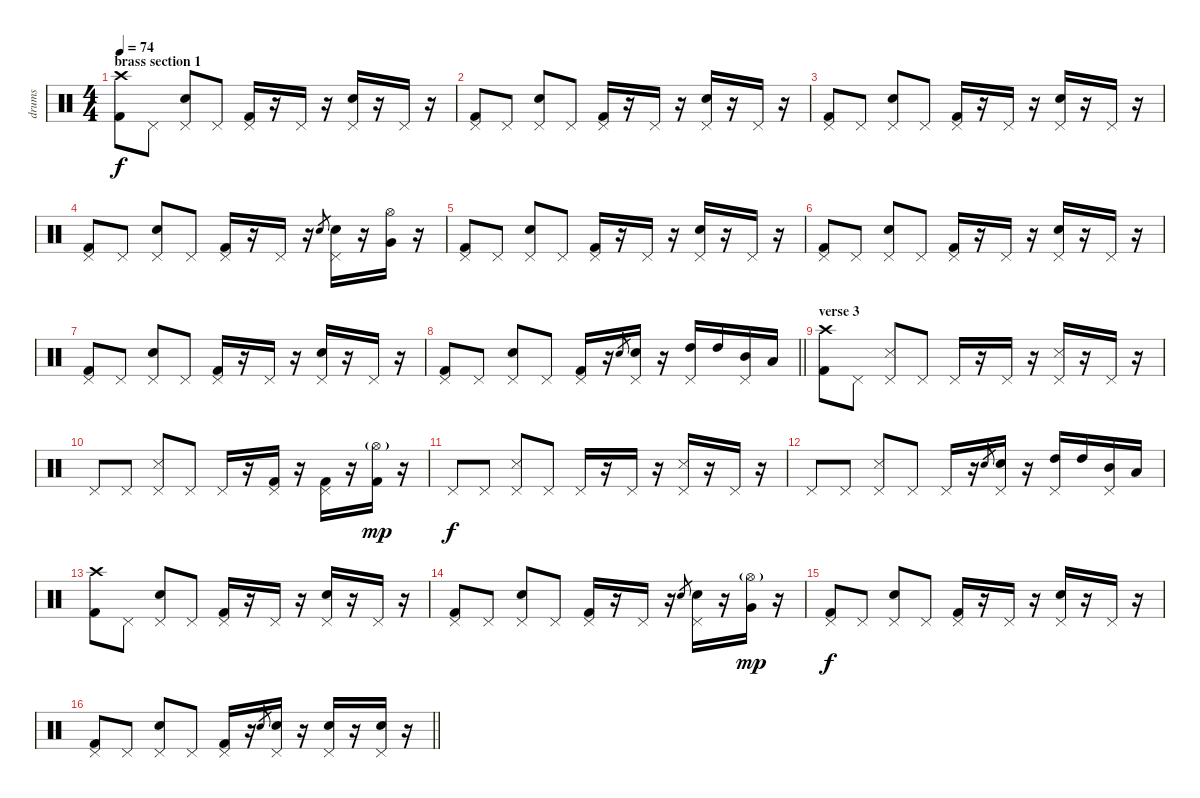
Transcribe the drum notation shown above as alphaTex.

\track ("drums" "drums") {instrument percussion}
\staff {score}
\articulation defaults
\ts (4 4)
\section ("" "brass section 1")
\tempo 74
\clef neutral
\ks c
("Kick (hit) 2" "Crash high (hit)").8{dy f} "Pedal Hi-Hat (hit)".8 ("Electric Snare (hit)" "Pedal Hi-Hat (hit)").8 "Pedal Hi-Hat (hit)".8 ("Kick (hit) 2" "Pedal Hi-Hat (hit)").16 r.16 "Pedal Hi-Hat (hit)".16 r.16 ("Electric Snare (hit)" "Pedal Hi-Hat (hit)").16 r.16 "Pedal Hi-Hat (hit)".16 r.16 |
("Kick (hit) 2" "Pedal Hi-Hat (hit)").8 "Pedal Hi-Hat (hit)".8 ("Electric Snare (hit)" "Pedal Hi-Hat (hit)").8 "Pedal Hi-Hat (hit)".8 ("Kick (hit) 2" "Pedal Hi-Hat (hit)").16 r.16 "Pedal Hi-Hat (hit)".16 r.16 ("Electric Snare (hit)" "Pedal Hi-Hat (hit)").16 r.16 "Pedal Hi-Hat (hit)".16 r.16 |
("Kick (hit) 2" "Pedal Hi-Hat (hit)").8 "Pedal Hi-Hat (hit)".8 ("Electric Snare (hit)" "Pedal Hi-Hat (hit)").8 "Pedal Hi-Hat (hit)".8 ("Kick (hit) 2" "Pedal Hi-Hat (hit)").16 r.16 "Pedal Hi-Hat (hit)".16 r.16 ("Electric Snare (hit)" "Pedal Hi-Hat (hit)").16 r.16 "Pedal Hi-Hat (hit)".16 r.16 |
("Kick (hit) 2" "Pedal Hi-Hat (hit)").8 "Pedal Hi-Hat (hit)".8 ("Electric Snare (hit)" "Pedal Hi-Hat (hit)").8 "Pedal Hi-Hat (hit)".8 ("Kick (hit) 2" "Pedal Hi-Hat (hit)").16 r.16 "Pedal Hi-Hat (hit)".16 r.16 "Electric Snare (hit)".8{gr} ("Electric Snare (hit)" "Pedal Hi-Hat (hit)").16 r.16 ("Very Low Tom (hit)" "Hi-Hat (open)").16 r.16 |
("Kick (hit) 2" "Pedal Hi-Hat (hit)").8 "Pedal Hi-Hat (hit)".8 ("Electric Snare (hit)" "Pedal Hi-Hat (hit)").8 "Pedal Hi-Hat (hit)".8 ("Kick (hit) 2" "Pedal Hi-Hat (hit)").16 r.16 "Pedal Hi-Hat (hit)".16 r.16 ("Electric Snare (hit)" "Pedal Hi-Hat (hit)").16 r.16 "Pedal Hi-Hat (hit)".16 r.16 |
("Kick (hit) 2" "Pedal Hi-Hat (hit)").8 "Pedal Hi-Hat (hit)".8 ("Electric Snare (hit)" "Pedal Hi-Hat (hit)").8 "Pedal Hi-Hat (hit)".8 ("Kick (hit) 2" "Pedal Hi-Hat (hit)").16 r.16 "Pedal Hi-Hat (hit)".16 r.16 ("Electric Snare (hit)" "Pedal Hi-Hat (hit)").16 r.16 "Pedal Hi-Hat (hit)".16 r.16 |
("Kick (hit) 2" "Pedal Hi-Hat (hit)").8 "Pedal Hi-Hat (hit)".8 ("Electric Snare (hit)" "Pedal Hi-Hat (hit)").8 "Pedal Hi-Hat (hit)".8 ("Kick (hit) 2" "Pedal Hi-Hat (hit)").16 r.16 "Pedal Hi-Hat (hit)".16 r.16 ("Electric Snare (hit)" "Pedal Hi-Hat (hit)").16 r.16 "Pedal Hi-Hat (hit)".16 r.16 |
\barLineRight lightlight
("Kick (hit) 2" "Pedal Hi-Hat (hit)").8 "Pedal Hi-Hat (hit)".8 ("Electric Snare (hit)" "Pedal Hi-Hat (hit)").8 "Pedal Hi-Hat (hit)".8 ("Kick (hit) 2" "Pedal Hi-Hat (hit)").16 r.16 "Electric Snare (hit)".8{gr} ("Electric Snare (hit)" "Pedal Hi-Hat (hit)").16 r.16 ("High Tom (hit)" "Pedal Hi-Hat (hit)").16 "High Tom (hit)".16 ("Mid Tom (hit)" "Pedal Hi-Hat (hit)").16 "Low Tom (hit)".16 |
\section ("" "verse 3")
("Kick (hit) 2" "Crash high (hit)").8 "Pedal Hi-Hat (hit)".8 ("Snare (side stick) 3" "Pedal Hi-Hat (hit)").8 "Pedal Hi-Hat (hit)".8 "Pedal Hi-Hat (hit)".16 r.16 "Pedal Hi-Hat (hit)".16 r.16 ("Snare (side stick) 3" "Pedal Hi-Hat (hit)").16 r.16 "Pedal Hi-Hat (hit)".16 r.16 |
"Pedal Hi-Hat (hit)".8 "Pedal Hi-Hat (hit)".8 ("Snare (side stick) 3" "Pedal Hi-Hat (hit)").8 "Pedal Hi-Hat (hit)".8 "Pedal Hi-Hat (hit)".16 r.16 ("Kick (hit) 2" "Pedal Hi-Hat (hit)").16 r.16 ("Kick (hit) 2" "Pedal Hi-Hat (hit)").16 r.16 ("Kick (hit) 2" "Hi-Hat (open)"{g}).16{dy mp} r.16 |
"Pedal Hi-Hat (hit)".8{dy f} "Pedal Hi-Hat (hit)".8 ("Snare (side stick) 3" "Pedal Hi-Hat (hit)").8 "Pedal Hi-Hat (hit)".8 "Pedal Hi-Hat (hit)".16 r.16 "Pedal Hi-Hat (hit)".16 r.16 ("Snare (side stick) 3" "Pedal Hi-Hat (hit)").16 r.16 "Pedal Hi-Hat (hit)".16 r.16 |
"Pedal Hi-Hat (hit)".8 "Pedal Hi-Hat (hit)".8 ("Snare (side stick) 3" "Pedal Hi-Hat (hit)").8 "Pedal Hi-Hat (hit)".8 "Pedal Hi-Hat (hit)".16 r.16 "Electric Snare (hit)".8{gr} ("Electric Snare (hit)" "Pedal Hi-Hat (hit)").16 r.16 ("High Tom (hit)" "Pedal Hi-Hat (hit)").16 "High Tom (hit)".16 ("Mid Tom (hit)" "Pedal Hi-Hat (hit)").16 "Low Tom (hit)".16 |
("Kick (hit) 2" "Crash high (hit)").8 "Pedal Hi-Hat (hit)".8 ("Electric Snare (hit)" "Pedal Hi-Hat (hit)").8 "Pedal Hi-Hat (hit)".8 ("Kick (hit) 2" "Pedal Hi-Hat (hit)").16 r.16 "Pedal Hi-Hat (hit)".16 r.16 ("Electric Snare (hit)" "Pedal Hi-Hat (hit)").16 r.16 "Pedal Hi-Hat (hit)".16 r.16 |
("Kick (hit) 2" "Pedal Hi-Hat (hit)").8 "Pedal Hi-Hat (hit)".8 ("Electric Snare (hit)" "Pedal Hi-Hat (hit)").8 "Pedal Hi-Hat (hit)".8 ("Kick (hit) 2" "Pedal Hi-Hat (hit)").16 r.16 "Pedal Hi-Hat (hit)".16 r.16 "Electric Snare (hit)".8{gr} ("Electric Snare (hit)" "Pedal Hi-Hat (hit)").16 r.16 ("Very Low Tom (hit)" "Hi-Hat (open)"{g}).16{dy mp} r.16 |
("Kick (hit) 2" "Pedal Hi-Hat (hit)").8{dy f} "Pedal Hi-Hat (hit)".8 ("Electric Snare (hit)" "Pedal Hi-Hat (hit)").8 "Pedal Hi-Hat (hit)".8 ("Kick (hit) 2" "Pedal Hi-Hat (hit)").16 r.16 "Pedal Hi-Hat (hit)".16 r.16 ("Electric Snare (hit)" "Pedal Hi-Hat (hit)").16 r.16 "Pedal Hi-Hat (hit)".16 r.16 |
\barLineRight lightlight
("Kick (hit) 2" "Pedal Hi-Hat (hit)").8 "Pedal Hi-Hat (hit)".8 ("Electric Snare (hit)" "Pedal Hi-Hat (hit)").8 "Pedal Hi-Hat (hit)".8 ("Kick (hit) 2" "Pedal Hi-Hat (hit)").16 r.16 "Electric Snare (hit)".8{gr} ("Electric Snare (hit)" "Pedal Hi-Hat (hit)").16 r.16 ("Electric Snare (hit)" "Pedal Hi-Hat (hit)").16 r.16 ("Electric Snare (hit)" "Pedal Hi-Hat (hit)").16 r.16
